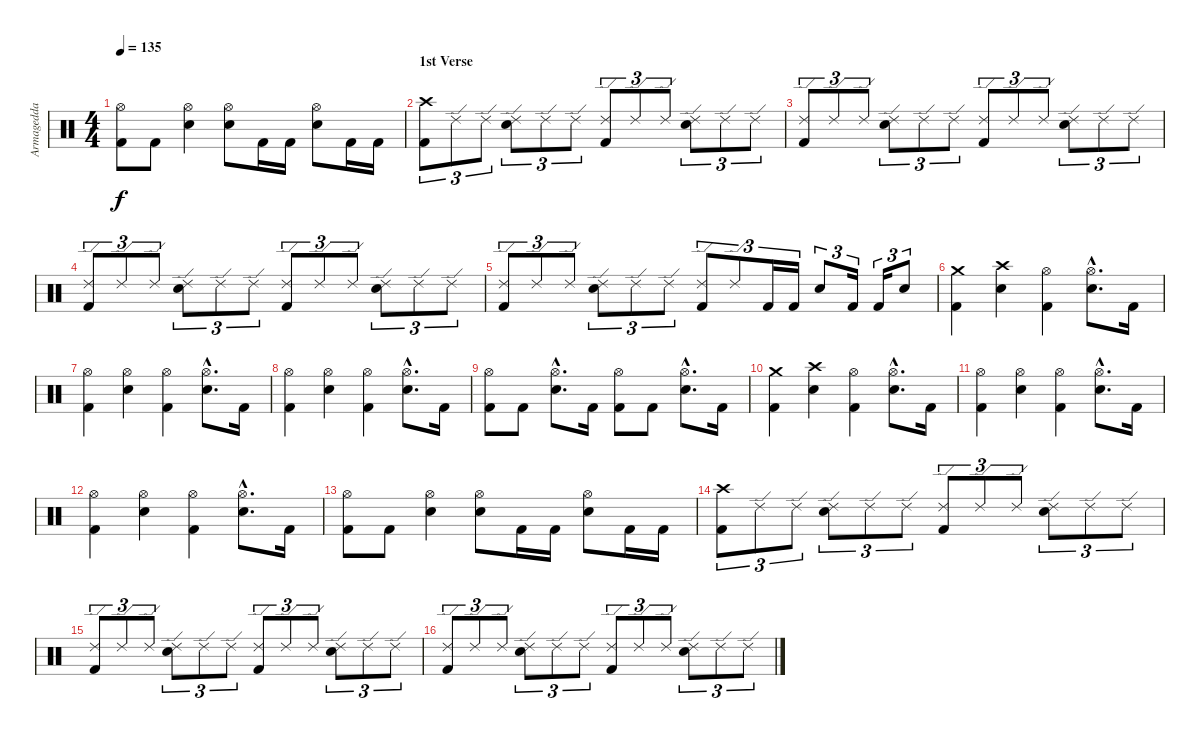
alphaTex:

\track ("Armagedda" "Armagedda") {instrument percussion}
\staff {score}
\articulation defaults
\ts (4 4)
\tempo 135
\clef neutral
\ks c
("Hi-Hat (open)" "Kick (hit) 2").8{dy f} "Kick (hit) 2".8 ("Hi-Hat (open)" "Electric Snare (hit)").4 ("Hi-Hat (open)" "Electric Snare (hit)").8 "Kick (hit) 2".16 "Kick (hit) 2".16 ("Hi-Hat (open)" "Electric Snare (hit)").8 "Kick (hit) 2".16 "Kick (hit) 2".16 |
\section ("" "1st Verse")
("Crash high (hit)" "Kick (hit) 2").8{tu (3 2)} "Ride (edge) 2".8{tu (3 2)} "Ride (edge) 2".8{tu (3 2)} ("Ride (edge) 2" "Electric Snare (hit)").8{tu (3 2)} "Ride (edge) 2".8{tu (3 2)} "Ride (edge) 2".8{tu (3 2)} ("Ride (edge) 2" "Kick (hit) 2").8{tu (3 2)} "Ride (edge) 2".8{tu (3 2)} "Ride (edge) 2".8{tu (3 2)} ("Ride (edge) 2" "Electric Snare (hit)").8{tu (3 2)} "Ride (edge) 2".8{tu (3 2)} "Ride (edge) 2".8{tu (3 2)} |
("Ride (edge) 2" "Kick (hit) 2").8{tu (3 2)} "Ride (edge) 2".8{tu (3 2)} "Ride (edge) 2".8{tu (3 2)} ("Ride (edge) 2" "Electric Snare (hit)").8{tu (3 2)} "Ride (edge) 2".8{tu (3 2)} "Ride (edge) 2".8{tu (3 2)} ("Ride (edge) 2" "Kick (hit) 2").8{tu (3 2)} "Ride (edge) 2".8{tu (3 2)} "Ride (edge) 2".8{tu (3 2)} ("Ride (edge) 2" "Electric Snare (hit)").8{tu (3 2)} "Ride (edge) 2".8{tu (3 2)} "Ride (edge) 2".8{tu (3 2)} |
("Ride (edge) 2" "Kick (hit) 2").8{tu (3 2)} "Ride (edge) 2".8{tu (3 2)} "Ride (edge) 2".8{tu (3 2)} ("Ride (edge) 2" "Electric Snare (hit)").8{tu (3 2)} "Ride (edge) 2".8{tu (3 2)} "Ride (edge) 2".8{tu (3 2)} ("Ride (edge) 2" "Kick (hit) 2").8{tu (3 2)} "Ride (edge) 2".8{tu (3 2)} "Ride (edge) 2".8{tu (3 2)} ("Ride (edge) 2" "Electric Snare (hit)").8{tu (3 2)} "Ride (edge) 2".8{tu (3 2)} "Ride (edge) 2".8{tu (3 2)} |
("Ride (edge) 2" "Kick (hit) 2").8{tu (3 2)} "Ride (edge) 2".8{tu (3 2)} "Ride (edge) 2".8{tu (3 2)} ("Ride (edge) 2" "Electric Snare (hit)").8{tu (3 2)} "Ride (edge) 2".8{tu (3 2)} "Ride (edge) 2".8{tu (3 2)} ("Ride (edge) 2" "Kick (hit) 2").8{tu (3 2)} "Ride (edge) 2".8{tu (3 2)} "Kick (hit) 2".16{tu (3 2)} "Kick (hit) 2".16{tu (3 2)} "Electric Snare (hit)".8{tu (3 2)} "Kick (hit) 2".16{tu (3 2)} "Kick (hit) 2".16{tu (3 2)} "Electric Snare (hit)".8{tu (3 2)} |
("Crash medium (hit)" "Kick (hit) 2").4 ("Crash high (hit)" "Electric Snare (hit)").4 ("Hi-Hat (open)" "Kick (hit) 2").4 ("Hi-Hat (open)"{hac} "Electric Snare (hit)"{hac}).8{d} "Kick (hit) 2".16 |
("Hi-Hat (open)" "Kick (hit) 2").4 ("Hi-Hat (open)" "Electric Snare (hit)").4 ("Hi-Hat (open)" "Kick (hit) 2").4 ("Hi-Hat (open)"{hac} "Electric Snare (hit)"{hac}).8{d} "Kick (hit) 2".16 |
("Hi-Hat (open)" "Kick (hit) 2").4 ("Hi-Hat (open)" "Electric Snare (hit)").4 ("Hi-Hat (open)" "Kick (hit) 2").4 ("Hi-Hat (open)"{hac} "Electric Snare (hit)"{hac}).8{d} "Kick (hit) 2".16 |
("Hi-Hat (open)" "Kick (hit) 2").8 "Kick (hit) 2".8 ("Hi-Hat (open)"{hac} "Electric Snare (hit)"{hac}).8{d} "Kick (hit) 2".16 ("Hi-Hat (open)" "Kick (hit) 2").8 "Kick (hit) 2".8 ("Hi-Hat (open)"{hac} "Electric Snare (hit)"{hac}).8{d} "Kick (hit) 2".16 |
("Crash medium (hit)" "Kick (hit) 2").4 ("Crash high (hit)" "Electric Snare (hit)").4 ("Hi-Hat (open)" "Kick (hit) 2").4 ("Hi-Hat (open)"{hac} "Electric Snare (hit)"{hac}).8{d} "Kick (hit) 2".16 |
("Hi-Hat (open)" "Kick (hit) 2").4 ("Hi-Hat (open)" "Electric Snare (hit)").4 ("Hi-Hat (open)" "Kick (hit) 2").4 ("Hi-Hat (open)"{hac} "Electric Snare (hit)"{hac}).8{d} "Kick (hit) 2".16 |
("Hi-Hat (open)" "Kick (hit) 2").4 ("Hi-Hat (open)" "Electric Snare (hit)").4 ("Hi-Hat (open)" "Kick (hit) 2").4 ("Hi-Hat (open)"{hac} "Electric Snare (hit)"{hac}).8{d} "Kick (hit) 2".16 |
("Hi-Hat (open)" "Kick (hit) 2").8 "Kick (hit) 2".8 ("Hi-Hat (open)" "Electric Snare (hit)").4 ("Hi-Hat (open)" "Electric Snare (hit)").8 "Kick (hit) 2".16 "Kick (hit) 2".16 ("Hi-Hat (open)" "Electric Snare (hit)").8 "Kick (hit) 2".16 "Kick (hit) 2".16 |
("Crash high (hit)" "Kick (hit) 2").8{tu (3 2)} "Ride (edge) 2".8{tu (3 2)} "Ride (edge) 2".8{tu (3 2)} ("Ride (edge) 2" "Electric Snare (hit)").8{tu (3 2)} "Ride (edge) 2".8{tu (3 2)} "Ride (edge) 2".8{tu (3 2)} ("Ride (edge) 2" "Kick (hit) 2").8{tu (3 2)} "Ride (edge) 2".8{tu (3 2)} "Ride (edge) 2".8{tu (3 2)} ("Ride (edge) 2" "Electric Snare (hit)").8{tu (3 2)} "Ride (edge) 2".8{tu (3 2)} "Ride (edge) 2".8{tu (3 2)} |
("Ride (edge) 2" "Kick (hit) 2").8{tu (3 2)} "Ride (edge) 2".8{tu (3 2)} "Ride (edge) 2".8{tu (3 2)} ("Ride (edge) 2" "Electric Snare (hit)").8{tu (3 2)} "Ride (edge) 2".8{tu (3 2)} "Ride (edge) 2".8{tu (3 2)} ("Ride (edge) 2" "Kick (hit) 2").8{tu (3 2)} "Ride (edge) 2".8{tu (3 2)} "Ride (edge) 2".8{tu (3 2)} ("Ride (edge) 2" "Electric Snare (hit)").8{tu (3 2)} "Ride (edge) 2".8{tu (3 2)} "Ride (edge) 2".8{tu (3 2)} |
("Ride (edge) 2" "Kick (hit) 2").8{tu (3 2)} "Ride (edge) 2".8{tu (3 2)} "Ride (edge) 2".8{tu (3 2)} ("Ride (edge) 2" "Electric Snare (hit)").8{tu (3 2)} "Ride (edge) 2".8{tu (3 2)} "Ride (edge) 2".8{tu (3 2)} ("Ride (edge) 2" "Kick (hit) 2").8{tu (3 2)} "Ride (edge) 2".8{tu (3 2)} "Ride (edge) 2".8{tu (3 2)} ("Ride (edge) 2" "Electric Snare (hit)").8{tu (3 2)} "Ride (edge) 2".8{tu (3 2)} "Ride (edge) 2".8{tu (3 2)}
